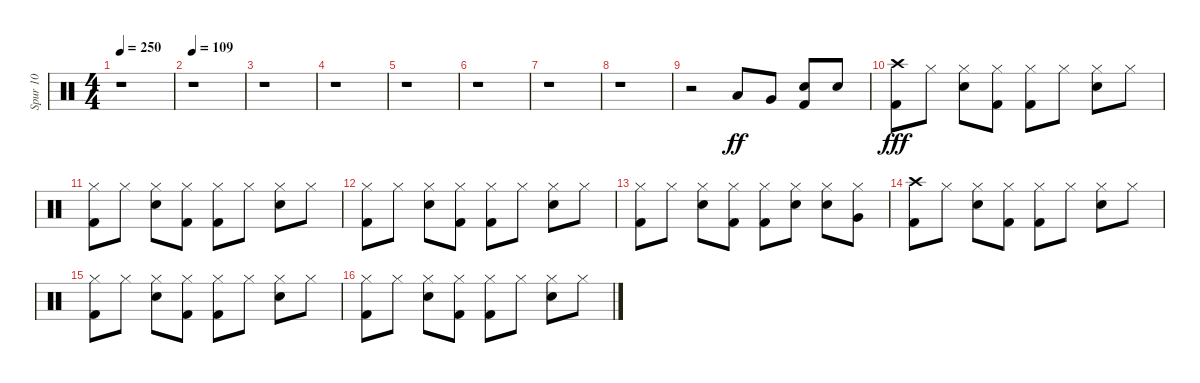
\track ("Spur 10" "Spur 10") {instrument percussion}
\staff {score}
\articulation defaults
\ts (4 4)
\tempo 250
\clef neutral
\ks c
r.1{dy ff} |
\tempo 109
r.1 |
r.1 |
r.1 |
r.1 |
r.1 |
r.1 |
r.1 |
r.2 "Low Tom (hit)".8 "Very Low Tom (hit)".8 ("Kick (hit) 2" "Snare (hit) 2").8 "Snare (hit) 2".8 |
("Kick (hit) 2" "Crash high (hit)").8{dy fff} "Hi-Hat (closed)".8 ("Snare (hit) 2" "Hi-Hat (closed)").8 ("Kick (hit) 2" "Hi-Hat (closed)").8 ("Kick (hit) 2" "Hi-Hat (closed)").8 "Hi-Hat (closed)".8 ("Snare (hit) 2" "Hi-Hat (closed)").8 "Hi-Hat (closed)".8 |
("Kick (hit) 2" "Hi-Hat (closed)").8 "Hi-Hat (closed)".8 ("Snare (hit) 2" "Hi-Hat (closed)").8 ("Kick (hit) 2" "Hi-Hat (closed)").8 ("Kick (hit) 2" "Hi-Hat (closed)").8 "Hi-Hat (closed)".8 ("Snare (hit) 2" "Hi-Hat (closed)").8 "Hi-Hat (closed)".8 |
("Kick (hit) 2" "Hi-Hat (closed)").8 "Hi-Hat (closed)".8 ("Snare (hit) 2" "Hi-Hat (closed)").8 ("Kick (hit) 2" "Hi-Hat (closed)").8 ("Kick (hit) 2" "Hi-Hat (closed)").8 "Hi-Hat (closed)".8 ("Snare (hit) 2" "Hi-Hat (closed)").8 "Hi-Hat (closed)".8 |
("Kick (hit) 2" "Hi-Hat (closed)").8 "Hi-Hat (closed)".8 ("Snare (hit) 2" "Hi-Hat (closed)").8 ("Kick (hit) 2" "Hi-Hat (closed)").8 ("Kick (hit) 2" "Hi-Hat (closed)").8 ("Snare (hit) 2" "Hi-Hat (closed)").8 ("Snare (hit) 2" "Hi-Hat (closed)").8 ("Very Low Tom (hit)" "Hi-Hat (closed)").8 |
("Kick (hit) 2" "Crash high (hit)").8 "Hi-Hat (closed)".8 ("Snare (hit) 2" "Hi-Hat (closed)").8 ("Kick (hit) 2" "Hi-Hat (closed)").8 ("Kick (hit) 2" "Hi-Hat (closed)").8 "Hi-Hat (closed)".8 ("Snare (hit) 2" "Hi-Hat (closed)").8 "Hi-Hat (closed)".8 |
("Kick (hit) 2" "Hi-Hat (closed)").8 "Hi-Hat (closed)".8 ("Snare (hit) 2" "Hi-Hat (closed)").8 ("Kick (hit) 2" "Hi-Hat (closed)").8 ("Kick (hit) 2" "Hi-Hat (closed)").8 "Hi-Hat (closed)".8 ("Snare (hit) 2" "Hi-Hat (closed)").8 "Hi-Hat (closed)".8 |
("Kick (hit) 2" "Hi-Hat (closed)").8 "Hi-Hat (closed)".8 ("Snare (hit) 2" "Hi-Hat (closed)").8 ("Kick (hit) 2" "Hi-Hat (closed)").8 ("Kick (hit) 2" "Hi-Hat (closed)").8 "Hi-Hat (closed)".8 ("Snare (hit) 2" "Hi-Hat (closed)").8 "Hi-Hat (closed)".8
